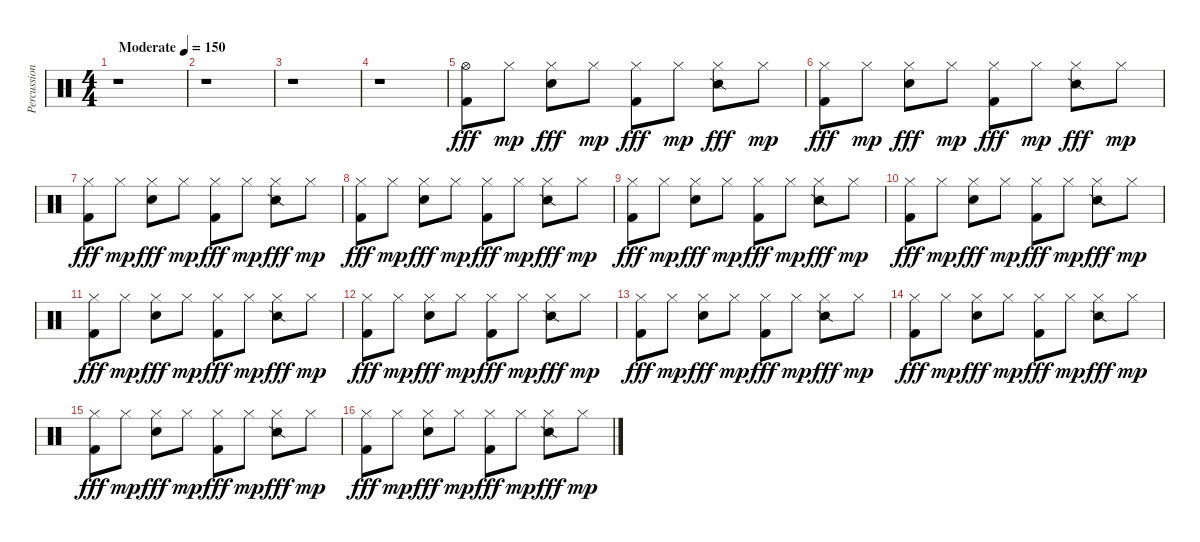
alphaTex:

\track ("Percussion" "Percussion") {instrument percussion}
\staff {score}
\articulation defaults
\ts (4 4)
\tempo (150 "Moderate")
\clef neutral
\ks c
r.1{dy fff} |
r.1 |
r.1 |
r.1 |
("Hi-Hat (open)" "Kick (hit) 2").8 "Hi-Hat (closed)".8{dy mp} ("Hi-Hat (closed)" "Snare (hit) 2").8{dy fff} "Hi-Hat (closed)".8{dy mp} ("Hi-Hat (closed)" "Kick (hit) 2").8{dy fff} "Hi-Hat (closed)".8{dy mp} ("Hi-Hat (closed)" "Snare (side stick) 2").8{dy fff} "Hi-Hat (closed)".8{dy mp} |
("Hi-Hat (closed)" "Kick (hit) 2").8{dy fff} "Hi-Hat (closed)".8{dy mp} ("Hi-Hat (closed)" "Snare (hit) 2").8{dy fff} "Hi-Hat (closed)".8{dy mp} ("Hi-Hat (closed)" "Kick (hit) 2").8{dy fff} "Hi-Hat (closed)".8{dy mp} ("Hi-Hat (closed)" "Snare (side stick) 2").8{dy fff} "Hi-Hat (closed)".8{dy mp} |
("Hi-Hat (closed)" "Kick (hit) 2").8{dy fff} "Hi-Hat (closed)".8{dy mp} ("Hi-Hat (closed)" "Snare (hit) 2").8{dy fff} "Hi-Hat (closed)".8{dy mp} ("Hi-Hat (closed)" "Kick (hit) 2").8{dy fff} "Hi-Hat (closed)".8{dy mp} ("Hi-Hat (closed)" "Snare (side stick) 2").8{dy fff} "Hi-Hat (closed)".8{dy mp} |
("Hi-Hat (closed)" "Kick (hit) 2").8{dy fff} "Hi-Hat (closed)".8{dy mp} ("Hi-Hat (closed)" "Snare (hit) 2").8{dy fff} "Hi-Hat (closed)".8{dy mp} ("Hi-Hat (closed)" "Kick (hit) 2").8{dy fff} "Hi-Hat (closed)".8{dy mp} ("Hi-Hat (closed)" "Snare (side stick) 2").8{dy fff} "Hi-Hat (closed)".8{dy mp} |
("Hi-Hat (closed)" "Kick (hit) 2").8{dy fff} "Hi-Hat (closed)".8{dy mp} ("Hi-Hat (closed)" "Snare (hit) 2").8{dy fff} "Hi-Hat (closed)".8{dy mp} ("Hi-Hat (closed)" "Kick (hit) 2").8{dy fff} "Hi-Hat (closed)".8{dy mp} ("Hi-Hat (closed)" "Snare (side stick) 2").8{dy fff} "Hi-Hat (closed)".8{dy mp} |
("Hi-Hat (closed)" "Kick (hit) 2").8{dy fff} "Hi-Hat (closed)".8{dy mp} ("Hi-Hat (closed)" "Snare (hit) 2").8{dy fff} "Hi-Hat (closed)".8{dy mp} ("Hi-Hat (closed)" "Kick (hit) 2").8{dy fff} "Hi-Hat (closed)".8{dy mp} ("Hi-Hat (closed)" "Snare (side stick) 2").8{dy fff} "Hi-Hat (closed)".8{dy mp} |
("Hi-Hat (closed)" "Kick (hit) 2").8{dy fff} "Hi-Hat (closed)".8{dy mp} ("Hi-Hat (closed)" "Snare (hit) 2").8{dy fff} "Hi-Hat (closed)".8{dy mp} ("Hi-Hat (closed)" "Kick (hit) 2").8{dy fff} "Hi-Hat (closed)".8{dy mp} ("Hi-Hat (closed)" "Snare (side stick) 2").8{dy fff} "Hi-Hat (closed)".8{dy mp} |
("Hi-Hat (closed)" "Kick (hit) 2").8{dy fff} "Hi-Hat (closed)".8{dy mp} ("Hi-Hat (closed)" "Snare (hit) 2").8{dy fff} "Hi-Hat (closed)".8{dy mp} ("Hi-Hat (closed)" "Kick (hit) 2").8{dy fff} "Hi-Hat (closed)".8{dy mp} ("Hi-Hat (closed)" "Snare (side stick) 2").8{dy fff} "Hi-Hat (closed)".8{dy mp} |
("Hi-Hat (closed)" "Kick (hit) 2").8{dy fff} "Hi-Hat (closed)".8{dy mp} ("Hi-Hat (closed)" "Snare (hit) 2").8{dy fff} "Hi-Hat (closed)".8{dy mp} ("Hi-Hat (closed)" "Kick (hit) 2").8{dy fff} "Hi-Hat (closed)".8{dy mp} ("Hi-Hat (closed)" "Snare (side stick) 2").8{dy fff} "Hi-Hat (closed)".8{dy mp} |
("Hi-Hat (closed)" "Kick (hit) 2").8{dy fff} "Hi-Hat (closed)".8{dy mp} ("Hi-Hat (closed)" "Snare (hit) 2").8{dy fff} "Hi-Hat (closed)".8{dy mp} ("Hi-Hat (closed)" "Kick (hit) 2").8{dy fff} "Hi-Hat (closed)".8{dy mp} ("Hi-Hat (closed)" "Snare (side stick) 2").8{dy fff} "Hi-Hat (closed)".8{dy mp} |
("Hi-Hat (closed)" "Kick (hit) 2").8{dy fff} "Hi-Hat (closed)".8{dy mp} ("Hi-Hat (closed)" "Snare (hit) 2").8{dy fff} "Hi-Hat (closed)".8{dy mp} ("Hi-Hat (closed)" "Kick (hit) 2").8{dy fff} "Hi-Hat (closed)".8{dy mp} ("Hi-Hat (closed)" "Snare (side stick) 2").8{dy fff} "Hi-Hat (closed)".8{dy mp} |
("Hi-Hat (closed)" "Kick (hit) 2").8{dy fff} "Hi-Hat (closed)".8{dy mp} ("Hi-Hat (closed)" "Snare (hit) 2").8{dy fff} "Hi-Hat (closed)".8{dy mp} ("Hi-Hat (closed)" "Kick (hit) 2").8{dy fff} "Hi-Hat (closed)".8{dy mp} ("Hi-Hat (closed)" "Snare (side stick) 2").8{dy fff} "Hi-Hat (closed)".8{dy mp}
